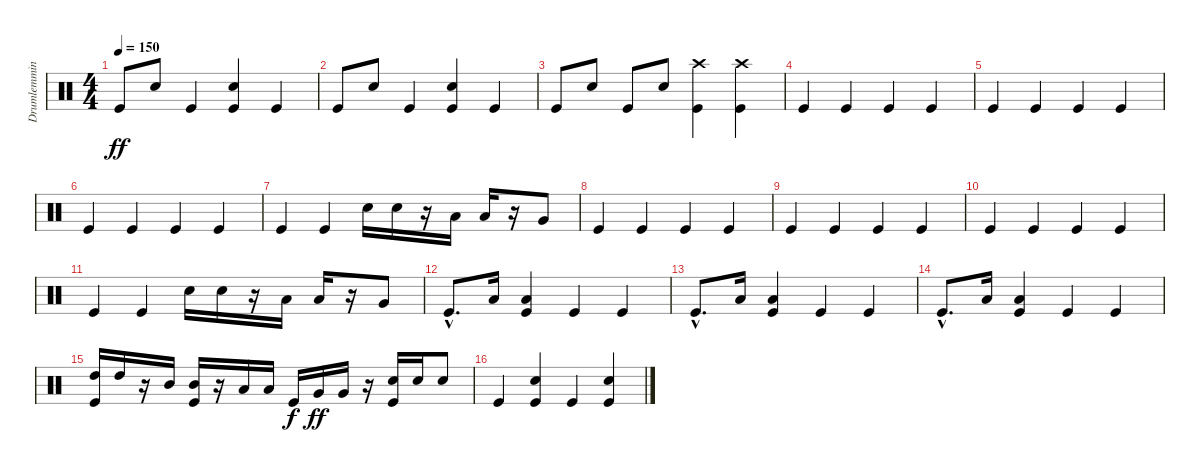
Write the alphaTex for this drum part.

\track ("Drumlemming" "Drumlemmin") {instrument percussion}
\staff {score}
\articulation defaults
\ts (4 4)
\tempo 150
\clef neutral
\ks c "Kick (hit)".8{dy ff} "Snare (hit) 2".8 "Kick (hit)".4
("Kick (hit)" "Snare (hit) 2").4 "Kick (hit)".4 |
"Kick (hit)".8 "Snare (hit) 2".8 "Kick (hit)".4 ("Kick (hit)" "Snare (hit) 2").4 "Kick (hit)".4 |
"Kick (hit)".8 "Snare (hit) 2".8 "Kick (hit)".8 "Snare (hit) 2".8 ("Kick (hit)" "Crash high (hit)").4 ("Kick (hit)" "Crash high (hit)").4 |
"Kick (hit)".4 "Kick (hit)".4 "Kick (hit)".4 "Kick (hit)".4 |
"Kick (hit)".4 "Kick (hit)".4 "Kick (hit)".4 "Kick (hit)".4 |
"Kick (hit)".4 "Kick (hit)".4 "Kick (hit)".4 "Kick (hit)".4 |
"Kick (hit)".4 "Kick (hit)".4 "Snare (hit) 2".16 "Snare (hit) 2".16 r.16 "Low Tom (hit)".16 "Low Tom (hit)".16 r.16 "Very Low Tom (hit)".8 |
"Kick (hit)".4 "Kick (hit)".4 "Kick (hit)".4 "Kick (hit)".4 |
"Kick (hit)".4 "Kick (hit)".4 "Kick (hit)".4 "Kick (hit)".4 |
"Kick (hit)".4 "Kick (hit)".4 "Kick (hit)".4 "Kick (hit)".4 |
"Kick (hit)".4 "Kick (hit)".4 "Snare (hit) 2".16 "Snare (hit) 2".16 r.16 "Low Tom (hit)".16 "Low Tom (hit)".16 r.16 "Very Low Tom (hit)".8 |
"Kick (hit)"{hac}.8{d} "Low Tom (hit)".16 ("Kick (hit)" "Low Tom (hit)").4 "Kick (hit)".4 "Kick (hit)".4 |
"Kick (hit)"{hac}.8{d} "Low Tom (hit)".16 ("Kick (hit)" "Low Tom (hit)").4 "Kick (hit)".4 "Kick (hit)".4 |
"Kick (hit)"{hac}.8{d} "Low Tom (hit)".16 ("Kick (hit)" "Low Tom (hit)").4 "Kick (hit)".4 "Kick (hit)".4 |
("High Tom (hit)" "Kick (hit)").16 "High Tom (hit)".16 r.16 "Mid Tom (hit)".16 ("Mid Tom (hit)" "Kick (hit)").16 r.16 "Low Tom (hit)".16 "Low Tom (hit)".16 "Kick (hit)".16{dy f} "Very Low Tom (hit)".16{dy ff} "Very Low Tom (hit)".16 r.16 ("Snare (hit) 2" "Kick (hit)").16 "Snare (hit) 2".16 "Snare (hit) 2".8 |
"Kick (hit)".4 ("Kick (hit)" "Snare (hit) 2").4 "Kick (hit)".4 ("Kick (hit)" "Snare (hit) 2").4
